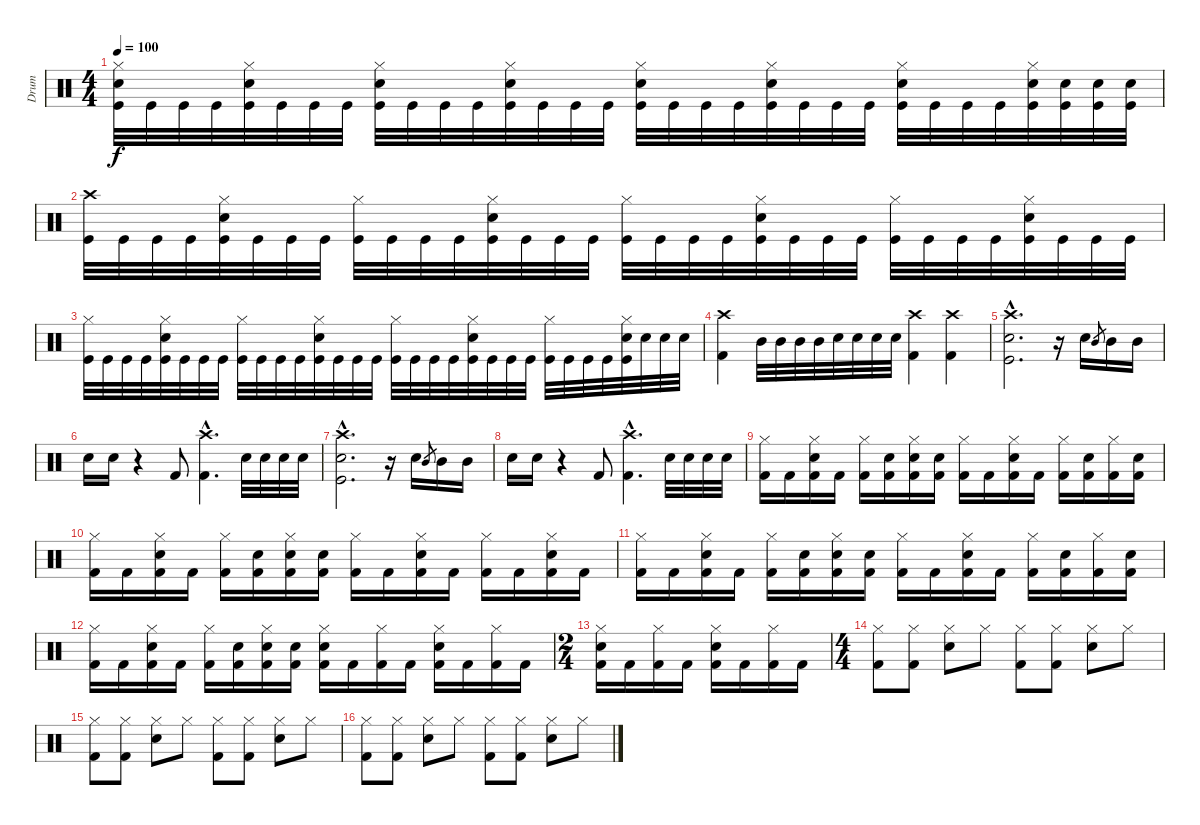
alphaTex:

\track ("Drum" "Drum") {instrument percussion}
\staff {score}
\articulation defaults
\ts (4 4)
\tempo 100
\clef neutral
\ks c
("Kick (hit)" "Snare (hit) 2" "Hi-Hat (closed)").32{dy f} "Kick (hit)".32 "Kick (hit)".32 "Kick (hit)".32 ("Kick (hit)" "Snare (hit) 2" "Hi-Hat (closed)").32 "Kick (hit)".32 "Kick (hit)".32 "Kick (hit)".32 ("Snare (hit) 2" "Kick (hit)" "Hi-Hat (closed)").32 "Kick (hit)".32 "Kick (hit)".32 "Kick (hit)".32 ("Kick (hit)" "Hi-Hat (closed)" "Snare (hit) 2").32 "Kick (hit)".32 "Kick (hit)".32 "Kick (hit)".32 ("Kick (hit)" "Snare (hit) 2" "Hi-Hat (closed)").32 "Kick (hit)".32 "Kick (hit)".32 "Kick (hit)".32 ("Snare (hit) 2" "Kick (hit)" "Hi-Hat (closed)").32 "Kick (hit)".32 "Kick (hit)".32 "Kick (hit)".32 ("Kick (hit)" "Snare (hit) 2" "Hi-Hat (closed)").32 "Kick (hit)".32 "Kick (hit)".32 "Kick (hit)".32 ("Kick (hit)" "Hi-Hat (closed)" "Snare (hit) 2").32 ("Kick (hit)" "Snare (hit) 2").32 ("Kick (hit)" "Snare (hit) 2").32 ("Kick (hit)" "Snare (hit) 2").32 |
("Kick (hit)" "Crash high (hit)").32 "Kick (hit)".32 "Kick (hit)".32 "Kick (hit)".32 ("Kick (hit)" "Snare (hit) 2" "Hi-Hat (closed)").32 "Kick (hit)".32 "Kick (hit)".32 "Kick (hit)".32 ("Kick (hit)" "Hi-Hat (closed)").32 "Kick (hit)".32 "Kick (hit)".32 "Kick (hit)".32 ("Kick (hit)" "Hi-Hat (closed)" "Snare (hit) 2").32 "Kick (hit)".32 "Kick (hit)".32 "Kick (hit)".32 ("Kick (hit)" "Hi-Hat (closed)").32 "Kick (hit)".32 "Kick (hit)".32 "Kick (hit)".32 ("Snare (hit) 2" "Kick (hit)" "Hi-Hat (closed)").32 "Kick (hit)".32 "Kick (hit)".32 "Kick (hit)".32 ("Kick (hit)" "Hi-Hat (closed)").32 "Kick (hit)".32 "Kick (hit)".32 "Kick (hit)".32 ("Kick (hit)" "Snare (hit) 2" "Hi-Hat (closed)").32 "Kick (hit)".32 "Kick (hit)".32 "Kick (hit)".32 |
("Kick (hit)" "Hi-Hat (closed)").32 "Kick (hit)".32 "Kick (hit)".32 "Kick (hit)".32 ("Kick (hit)" "Snare (hit) 2" "Hi-Hat (closed)").32 "Kick (hit)".32 "Kick (hit)".32 "Kick (hit)".32 ("Kick (hit)" "Hi-Hat (closed)").32 "Kick (hit)".32 "Kick (hit)".32 "Kick (hit)".32 ("Kick (hit)" "Hi-Hat (closed)" "Snare (hit) 2").32 "Kick (hit)".32 "Kick (hit)".32 "Kick (hit)".32 ("Kick (hit)" "Hi-Hat (closed)").32 "Kick (hit)".32 "Kick (hit)".32 "Kick (hit)".32 ("Snare (hit) 2" "Kick (hit)" "Hi-Hat (closed)").32 "Kick (hit)".32 "Kick (hit)".32 "Kick (hit)".32 ("Kick (hit)" "Hi-Hat (closed)").32 "Kick (hit)".32 "Kick (hit)".32 "Kick (hit)".32 ("Kick (hit)" "Snare (hit) 2" "Hi-Hat (closed)").32 "Snare (hit) 2".32 "Snare (hit) 2".32 "Snare (hit) 2".32 |
("Kick (hit) 2" "Crash high (hit)").4 "Mid Tom (hit)".32 "Mid Tom (hit)".32 "Mid Tom (hit)".32 "Mid Tom (hit)".32 "Snare (hit) 2".32 "Snare (hit) 2".32 "Snare (hit) 2".32 "Snare (hit) 2".32 ("Kick (hit) 2" "Crash high (hit)").4 ("Kick (hit) 2" "Crash high (hit)").4 |
("Kick (hit)"{hac} "Snare (hit) 2"{hac} "Crash high (hit)"{hac}).2{d} r.16 "Snare (hit) 2".16 "Mid Tom (hit)".8{gr} "Mid Tom (hit)".16 "Mid Tom (hit)".16 |
"Snare (hit) 2".16 "Snare (hit) 2".16 r.4 "Kick (hit) 2".8 ("Crash high (hit)"{hac} "Kick (hit) 2"{hac}).4{d} "Snare (hit) 2".32 "Snare (hit) 2".32 "Snare (hit) 2".32 "Snare (hit) 2".32 |
("Kick (hit)"{hac} "Snare (hit) 2"{hac} "Crash high (hit)"{hac}).2{d} r.16 "Snare (hit) 2".16 "Mid Tom (hit)".8{gr} "Mid Tom (hit)".16 "Mid Tom (hit)".16 |
"Snare (hit) 2".16 "Snare (hit) 2".16 r.4 "Kick (hit) 2".8 ("Crash high (hit)"{hac} "Kick (hit) 2"{hac}).4{d} "Snare (hit) 2".32 "Snare (hit) 2".32 "Snare (hit) 2".32 "Snare (hit) 2".32 |
("Hi-Hat (closed)" "Kick (hit) 2").16 "Kick (hit) 2".16 ("Hi-Hat (closed)" "Snare (hit) 2" "Kick (hit) 2").16 "Kick (hit) 2".16 ("Hi-Hat (closed)" "Kick (hit) 2").16 ("Snare (hit) 2" "Kick (hit) 2").16 ("Hi-Hat (closed)" "Snare (hit) 2" "Kick (hit) 2").16 ("Snare (hit) 2" "Kick (hit) 2").16 ("Hi-Hat (closed)" "Kick (hit) 2").16 "Kick (hit) 2".16 ("Hi-Hat (closed)" "Snare (hit) 2" "Kick (hit) 2").16 "Kick (hit) 2".16 ("Hi-Hat (closed)" "Kick (hit) 2").16 ("Snare (hit) 2" "Kick (hit) 2").16 ("Hi-Hat (closed)" "Kick (hit) 2").16 ("Snare (hit) 2" "Kick (hit) 2").16 |
("Hi-Hat (closed)" "Kick (hit) 2").16 "Kick (hit) 2".16 ("Hi-Hat (closed)" "Snare (hit) 2" "Kick (hit) 2").16 "Kick (hit) 2".16 ("Hi-Hat (closed)" "Kick (hit) 2").16 ("Snare (hit) 2" "Kick (hit) 2").16 ("Hi-Hat (closed)" "Snare (hit) 2" "Kick (hit) 2").16 ("Snare (hit) 2" "Kick (hit) 2").16 ("Hi-Hat (closed)" "Kick (hit) 2").16 "Kick (hit) 2".16 ("Hi-Hat (closed)" "Snare (hit) 2" "Kick (hit) 2").16 "Kick (hit) 2".16 ("Hi-Hat (closed)" "Kick (hit) 2").16 "Kick (hit) 2".16 ("Snare (hit) 2" "Hi-Hat (closed)" "Kick (hit) 2").16 "Kick (hit) 2".16 |
("Hi-Hat (closed)" "Kick (hit) 2").16 "Kick (hit) 2".16 ("Hi-Hat (closed)" "Snare (hit) 2" "Kick (hit) 2").16 "Kick (hit) 2".16 ("Hi-Hat (closed)" "Kick (hit) 2").16 ("Snare (hit) 2" "Kick (hit) 2").16 ("Hi-Hat (closed)" "Snare (hit) 2" "Kick (hit) 2").16 ("Snare (hit) 2" "Kick (hit) 2").16 ("Hi-Hat (closed)" "Kick (hit) 2").16 "Kick (hit) 2".16 ("Hi-Hat (closed)" "Snare (hit) 2" "Kick (hit) 2").16 "Kick (hit) 2".16 ("Hi-Hat (closed)" "Kick (hit) 2").16 ("Snare (hit) 2" "Kick (hit) 2").16 ("Hi-Hat (closed)" "Kick (hit) 2").16 ("Snare (hit) 2" "Kick (hit) 2").16 |
("Hi-Hat (closed)" "Kick (hit) 2").16 "Kick (hit) 2".16 ("Hi-Hat (closed)" "Snare (hit) 2" "Kick (hit) 2").16 "Kick (hit) 2".16 ("Hi-Hat (closed)" "Kick (hit) 2").16 ("Snare (hit) 2" "Kick (hit) 2").16 ("Hi-Hat (closed)" "Snare (hit) 2" "Kick (hit) 2").16 ("Snare (hit) 2" "Kick (hit) 2").16 ("Hi-Hat (closed)" "Snare (hit) 2" "Kick (hit) 2").16 "Kick (hit) 2".16 ("Hi-Hat (closed)" "Kick (hit) 2").16 "Kick (hit) 2".16 ("Snare (hit) 2" "Hi-Hat (closed)" "Kick (hit) 2").16 "Kick (hit) 2".16 ("Hi-Hat (closed)" "Kick (hit) 2").16 "Kick (hit) 2".16 |
\ts (2 4)
("Snare (hit) 2" "Hi-Hat (closed)" "Kick (hit) 2").16 "Kick (hit) 2".16 ("Hi-Hat (closed)" "Kick (hit) 2").16 "Kick (hit) 2".16 ("Snare (hit) 2" "Hi-Hat (closed)" "Kick (hit) 2").16 "Kick (hit) 2".16 ("Hi-Hat (closed)" "Kick (hit) 2").16 "Kick (hit) 2".16 |
\ts (4 4)
("Hi-Hat (closed)" "Kick (hit) 2").8 ("Hi-Hat (closed)" "Kick (hit) 2").8 ("Hi-Hat (closed)" "Snare (hit) 2").8 "Hi-Hat (closed)".8 ("Hi-Hat (closed)" "Kick (hit) 2").8 ("Hi-Hat (closed)" "Kick (hit) 2").8 ("Snare (hit) 2" "Hi-Hat (closed)").8 "Hi-Hat (closed)".8 |
("Hi-Hat (closed)" "Kick (hit) 2").8 ("Hi-Hat (closed)" "Kick (hit) 2").8 ("Hi-Hat (closed)" "Snare (hit) 2").8 "Hi-Hat (closed)".8 ("Hi-Hat (closed)" "Kick (hit) 2").8 ("Hi-Hat (closed)" "Kick (hit) 2").8 ("Snare (hit) 2" "Hi-Hat (closed)").8 "Hi-Hat (closed)".8 |
("Hi-Hat (closed)" "Kick (hit) 2").8 ("Hi-Hat (closed)" "Kick (hit) 2").8 ("Hi-Hat (closed)" "Snare (hit) 2").8 "Hi-Hat (closed)".8 ("Hi-Hat (closed)" "Kick (hit) 2").8 ("Hi-Hat (closed)" "Kick (hit) 2").8 ("Snare (hit) 2" "Hi-Hat (closed)").8 "Hi-Hat (closed)".8
